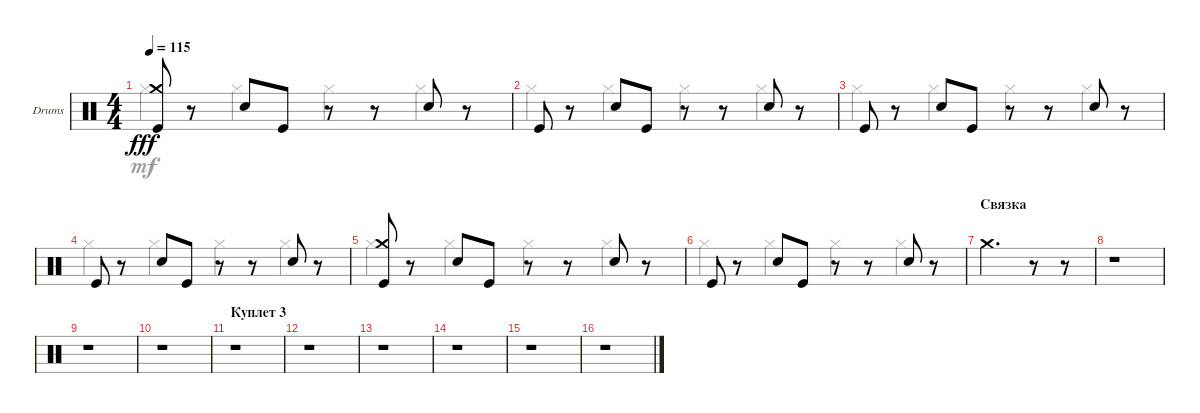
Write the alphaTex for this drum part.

\defaultSystemsLayout 4
\bracketExtendMode groupsimilarinstruments
\firstSystemTrackNameOrientation horizontal
\otherSystemsTrackNameOrientation horizontal
\track ("Миша \"Пчёлка\" Краев (Ударные)" "Drums") {instrument percussion}
\staff {score}
\articulation defaults
\voice
\ts (4 4)
\tempo 115
\clef neutral
\ks c
("Kick (hit)" "Crash medium (hit)").8{dy fff} r.8 "Snare (hit) 2".8 "Kick (hit)".8 r.8 r.8 "Snare (hit) 2".8 r.8 |
"Kick (hit)".8 r.8 "Snare (hit) 2".8 "Kick (hit)".8 r.8 r.8 "Snare (hit) 2".8 r.8 |
"Kick (hit)".8 r.8 "Snare (hit) 2".8 "Kick (hit)".8 r.8 r.8 "Snare (hit) 2".8 r.8 |
"Kick (hit)".8 r.8 "Snare (hit) 2".8 "Kick (hit)".8 r.8 r.8 "Snare (hit) 2".8 r.8 |
("Kick (hit)" "Crash medium (hit)").8 r.8 "Snare (hit) 2".8 "Kick (hit)".8 r.8 r.8 "Snare (hit) 2".8 r.8 |
"Kick (hit)".8 r.8 "Snare (hit) 2".8 "Kick (hit)".8 r.8 r.8 "Snare (hit) 2".8 r.8 |
\section ("" "Связка")
"Crash medium (hit)".2{d} r.8 r.8 |
r.1 |
r.1 |
r.1 |
\section ("" "Куплет 3")
r.1 |
r.1 |
r.1 |
r.1 |
r.1 |
r.1
\voice
\clef neutral
\ottava regular
\simile none
\ks c "Hi-Hat (closed)".4{dy mf} "Hi-Hat (closed)".4 "Hi-Hat (closed)".4 "Hi-Hat (closed)".4
|
"Hi-Hat (closed)".4 "Hi-Hat (closed)".4 "Hi-Hat (closed)".4 "Hi-Hat (closed)".4 |
"Hi-Hat (closed)".4 "Hi-Hat (closed)".4 "Hi-Hat (closed)".4 "Hi-Hat (closed)".4 |
"Hi-Hat (closed)".4 "Hi-Hat (closed)".4 "Hi-Hat (closed)".4 "Hi-Hat (closed)".4 |
"Hi-Hat (closed)".4 "Hi-Hat (closed)".4 "Hi-Hat (closed)".4 "Hi-Hat (closed)".4 |
"Hi-Hat (closed)".4 "Hi-Hat (closed)".4 "Hi-Hat (closed)".4 "Hi-Hat (closed)".4 |
|
|
|
|
|
|
|
|
|
